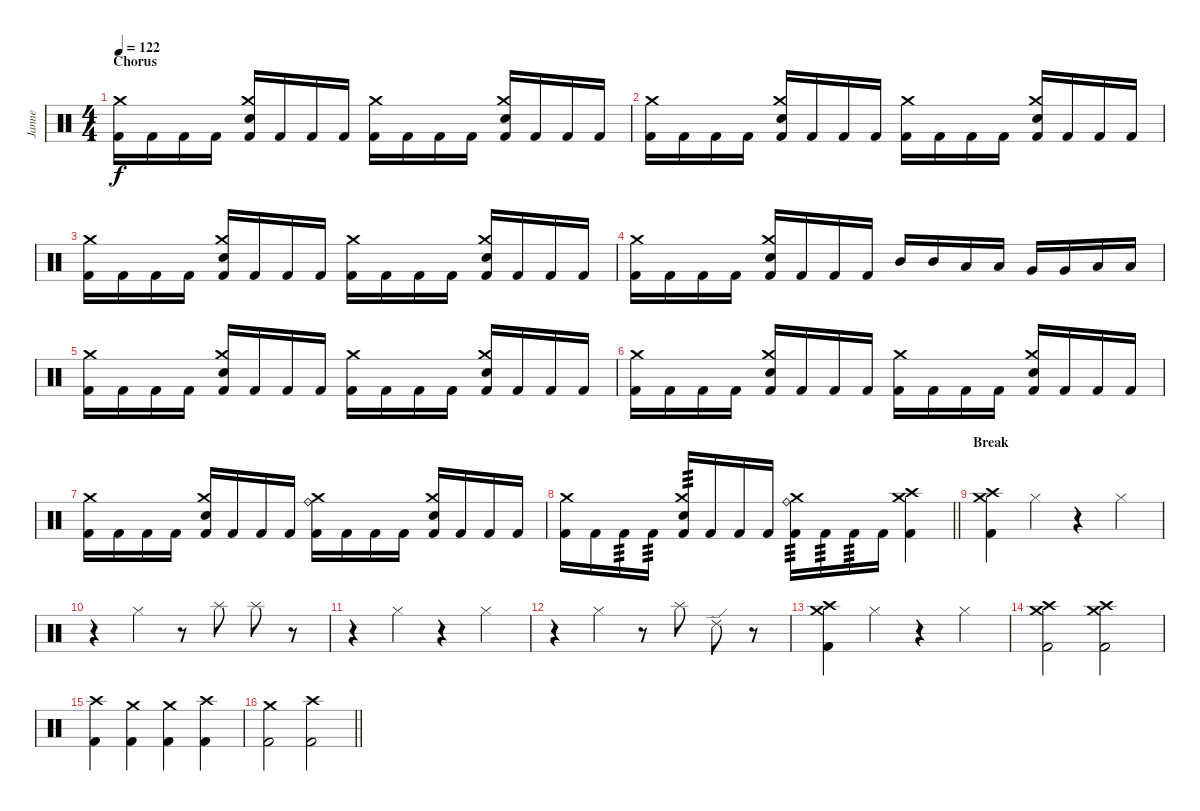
\track ("Janne" "Janne") {instrument percussion}
\staff {score}
\articulation defaults
\ts (4 4)
\section ("" "Chorus")
\tempo 122
\clef neutral
\ks c
("Kick (hit) 2" "Crash medium (hit)").16{dy f} "Kick (hit) 2".16 "Kick (hit) 2".16 "Kick (hit) 2".16 ("Kick (hit) 2" "Snare (hit) 2" "Crash medium (hit)").16 "Kick (hit) 2".16 "Kick (hit) 2".16 "Kick (hit) 2".16 ("Kick (hit) 2" "Crash medium (hit)").16 "Kick (hit) 2".16 "Kick (hit) 2".16 "Kick (hit) 2".16 ("Kick (hit) 2" "Snare (hit) 2" "Crash medium (hit)").16 "Kick (hit) 2".16 "Kick (hit) 2".16 "Kick (hit) 2".16 |
("Kick (hit) 2" "Crash medium (hit)").16 "Kick (hit) 2".16 "Kick (hit) 2".16 "Kick (hit) 2".16 ("Kick (hit) 2" "Snare (hit) 2" "Crash medium (hit)").16 "Kick (hit) 2".16 "Kick (hit) 2".16 "Kick (hit) 2".16 ("Kick (hit) 2" "Crash medium (hit)").16 "Kick (hit) 2".16 "Kick (hit) 2".16 "Kick (hit) 2".16 ("Kick (hit) 2" "Snare (hit) 2" "Crash medium (hit)").16 "Kick (hit) 2".16 "Kick (hit) 2".16 "Kick (hit) 2".16 |
("Kick (hit) 2" "Crash medium (hit)").16 "Kick (hit) 2".16 "Kick (hit) 2".16 "Kick (hit) 2".16 ("Kick (hit) 2" "Snare (hit) 2" "Crash medium (hit)").16 "Kick (hit) 2".16 "Kick (hit) 2".16 "Kick (hit) 2".16 ("Kick (hit) 2" "Crash medium (hit)").16 "Kick (hit) 2".16 "Kick (hit) 2".16 "Kick (hit) 2".16 ("Kick (hit) 2" "Snare (hit) 2" "Crash medium (hit)").16 "Kick (hit) 2".16 "Kick (hit) 2".16 "Kick (hit) 2".16 |
("Kick (hit) 2" "Crash medium (hit)").16 "Kick (hit) 2".16 "Kick (hit) 2".16 "Kick (hit) 2".16 ("Kick (hit) 2" "Snare (hit) 2" "Crash medium (hit)").16 "Kick (hit) 2".16 "Kick (hit) 2".16 "Kick (hit) 2".16 "Mid Tom (hit)".16 "Mid Tom (hit)".16 "Low Tom (hit)".16 "Low Tom (hit)".16 "Very Low Tom (hit)".16 "Very Low Tom (hit)".16 "Low Floor Tom (hit)".16 "Low Floor Tom (hit)".16 |
("Kick (hit) 2" "Crash medium (hit)").16 "Kick (hit) 2".16 "Kick (hit) 2".16 "Kick (hit) 2".16 ("Kick (hit) 2" "Snare (hit) 2" "Crash medium (hit)").16 "Kick (hit) 2".16 "Kick (hit) 2".16 "Kick (hit) 2".16 ("Kick (hit) 2" "Crash medium (hit)").16 "Kick (hit) 2".16 "Kick (hit) 2".16 "Kick (hit) 2".16 ("Kick (hit) 2" "Snare (hit) 2" "Crash medium (hit)").16 "Kick (hit) 2".16 "Kick (hit) 2".16 "Kick (hit) 2".16 |
("Kick (hit) 2" "Crash medium (hit)").16 "Kick (hit) 2".16 "Kick (hit) 2".16 "Kick (hit) 2".16 ("Kick (hit) 2" "Snare (hit) 2" "Crash medium (hit)").16 "Kick (hit) 2".16 "Kick (hit) 2".16 "Kick (hit) 2".16 ("Kick (hit) 2" "Crash medium (hit)").16 "Kick (hit) 2".16 "Kick (hit) 2".16 "Kick (hit) 2".16 ("Kick (hit) 2" "Snare (hit) 2" "Crash medium (hit)").16 "Kick (hit) 2".16 "Kick (hit) 2".16 "Kick (hit) 2".16 |
("Kick (hit) 2" "Crash medium (hit)").16 "Kick (hit) 2".16 "Kick (hit) 2".16 "Kick (hit) 2".16 ("Kick (hit) 2" "Snare (hit) 2" "Crash medium (hit)").16 "Kick (hit) 2".16 "Kick (hit) 2".16 "Kick (hit) 2".16 ("Kick (hit) 2" "Crash medium (hit)" "Ride (bell)").16 "Kick (hit) 2".16 "Kick (hit) 2".16 "Kick (hit) 2".16 ("Kick (hit) 2" "Snare (hit) 2" "Crash medium (hit)").16 "Kick (hit) 2".16 "Kick (hit) 2".16 "Kick (hit) 2".16 |
\barLineRight lightlight
("Kick (hit) 2" "Crash medium (hit)").16 "Kick (hit) 2".16 "Kick (hit) 2".16{tp 3} "Kick (hit) 2".16{tp 3} ("Kick (hit) 2" "Snare (hit) 2" "Crash medium (hit)").16{tp 3} "Kick (hit) 2".16 "Kick (hit) 2".16 "Kick (hit) 2".16 ("Kick (hit) 2" "Crash medium (hit)" "Ride (bell)").16{tp 3} "Kick (hit) 2".16{tp 3} "Kick (hit) 2".16{tp 3} "Kick (hit) 2".16 ("Kick (hit) 2" "Crash medium (hit)" "Crash high (hit)").4 |
\section ("" "Break")
("Kick (hit) 2" "Crash medium (hit)" "Crash high (hit)").4 "Hi-Hat (closed)".4 r.4 "Hi-Hat (closed)".4 |
r.4 "Hi-Hat (closed)".4 r.8 "Splash (hit)".8 "Splash (hit)".8 r.8 |
r.4 "Hi-Hat (closed)".4 r.4 "Hi-Hat (closed)".4 |
r.4 "Hi-Hat (closed)".4 r.8 "Splash (hit)".8 "Ride (edge) 2".8 r.8 |
("Kick (hit) 2" "Crash medium (hit)" "Crash high (hit)").4 "Hi-Hat (closed)".4 r.4 "Hi-Hat (closed)".4 |
("Kick (hit) 2" "Crash medium (hit)" "Crash high (hit)").2 ("Kick (hit) 2" "Crash medium (hit)" "Crash high (hit)").2 |
("Kick (hit) 2" "Crash high (hit)").4 ("Kick (hit) 2" "Crash medium (hit)").4 ("Kick (hit) 2" "Crash medium (hit)").4 ("Kick (hit) 2" "Crash high (hit)").4 |
\barLineRight lightlight
("Kick (hit) 2" "Crash medium (hit)").2 ("Kick (hit) 2" "Crash high (hit)").2
